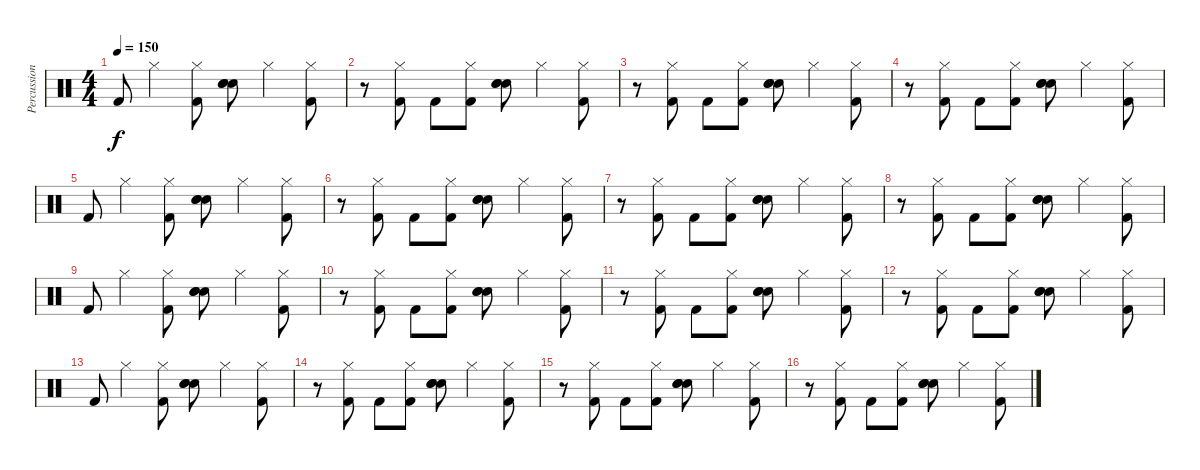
\track ("Percussion" "Percussion") {instrument percussion}
\staff {score}
\articulation defaults
\ts (4 4)
\tempo 150
\clef neutral
\ks c "Kick (hit) 2".8{dy f} "Hi-Hat (closed)".4
("Hi-Hat (closed)" "Kick (hit) 2").8 ("Hand Clap (hit)" "Electric Snare (hit)" "Snare (hit) 2").8 "Hi-Hat (closed)".4 ("Hi-Hat (closed)" "Kick (hit) 2").8 |
r.8 ("Hi-Hat (closed)" "Kick (hit) 2").8 "Kick (hit) 2".8 ("Hi-Hat (closed)" "Kick (hit) 2").8 ("Hand Clap (hit)" "Electric Snare (hit)" "Snare (hit) 2").8 "Hi-Hat (closed)".4 ("Hi-Hat (closed)" "Kick (hit) 2").8 |
r.8 ("Hi-Hat (closed)" "Kick (hit) 2").8 "Kick (hit) 2".8 ("Hi-Hat (closed)" "Kick (hit) 2").8 ("Hand Clap (hit)" "Electric Snare (hit)" "Snare (hit) 2").8 "Hi-Hat (closed)".4 ("Hi-Hat (closed)" "Kick (hit) 2").8 |
r.8 ("Hi-Hat (closed)" "Kick (hit) 2").8 "Kick (hit) 2".8 ("Hi-Hat (closed)" "Kick (hit) 2").8 ("Hand Clap (hit)" "Electric Snare (hit)" "Snare (hit) 2").8 "Hi-Hat (closed)".4 ("Hi-Hat (closed)" "Kick (hit) 2").8 |
"Kick (hit) 2".8 "Hi-Hat (closed)".4 ("Hi-Hat (closed)" "Kick (hit) 2").8 ("Hand Clap (hit)" "Electric Snare (hit)" "Snare (hit) 2").8 "Hi-Hat (closed)".4 ("Hi-Hat (closed)" "Kick (hit) 2").8 |
r.8 ("Hi-Hat (closed)" "Kick (hit) 2").8 "Kick (hit) 2".8 ("Hi-Hat (closed)" "Kick (hit) 2").8 ("Hand Clap (hit)" "Electric Snare (hit)" "Snare (hit) 2").8 "Hi-Hat (closed)".4 ("Hi-Hat (closed)" "Kick (hit) 2").8 |
r.8 ("Hi-Hat (closed)" "Kick (hit) 2").8 "Kick (hit) 2".8 ("Hi-Hat (closed)" "Kick (hit) 2").8 ("Hand Clap (hit)" "Electric Snare (hit)" "Snare (hit) 2").8 "Hi-Hat (closed)".4 ("Hi-Hat (closed)" "Kick (hit) 2").8 |
r.8 ("Hi-Hat (closed)" "Kick (hit) 2").8 "Kick (hit) 2".8 ("Hi-Hat (closed)" "Kick (hit) 2").8 ("Hand Clap (hit)" "Electric Snare (hit)" "Snare (hit) 2").8 "Hi-Hat (closed)".4 ("Hi-Hat (closed)" "Kick (hit) 2").8 |
"Kick (hit) 2".8 "Hi-Hat (closed)".4 ("Hi-Hat (closed)" "Kick (hit) 2").8 ("Hand Clap (hit)" "Electric Snare (hit)" "Snare (hit) 2").8 "Hi-Hat (closed)".4 ("Hi-Hat (closed)" "Kick (hit) 2").8 |
r.8 ("Hi-Hat (closed)" "Kick (hit) 2").8 "Kick (hit) 2".8 ("Hi-Hat (closed)" "Kick (hit) 2").8 ("Hand Clap (hit)" "Electric Snare (hit)" "Snare (hit) 2").8 "Hi-Hat (closed)".4 ("Hi-Hat (closed)" "Kick (hit) 2").8 |
r.8 ("Hi-Hat (closed)" "Kick (hit) 2").8 "Kick (hit) 2".8 ("Hi-Hat (closed)" "Kick (hit) 2").8 ("Hand Clap (hit)" "Electric Snare (hit)" "Snare (hit) 2").8 "Hi-Hat (closed)".4 ("Hi-Hat (closed)" "Kick (hit) 2").8 |
r.8 ("Hi-Hat (closed)" "Kick (hit) 2").8 "Kick (hit) 2".8 ("Hi-Hat (closed)" "Kick (hit) 2").8 ("Hand Clap (hit)" "Electric Snare (hit)" "Snare (hit) 2").8 "Hi-Hat (closed)".4 ("Hi-Hat (closed)" "Kick (hit) 2").8 |
"Kick (hit) 2".8 "Hi-Hat (closed)".4 ("Hi-Hat (closed)" "Kick (hit) 2").8 ("Hand Clap (hit)" "Electric Snare (hit)" "Snare (hit) 2").8 "Hi-Hat (closed)".4 ("Hi-Hat (closed)" "Kick (hit) 2").8 |
r.8 ("Hi-Hat (closed)" "Kick (hit) 2").8 "Kick (hit) 2".8 ("Hi-Hat (closed)" "Kick (hit) 2").8 ("Hand Clap (hit)" "Electric Snare (hit)" "Snare (hit) 2").8 "Hi-Hat (closed)".4 ("Hi-Hat (closed)" "Kick (hit) 2").8 |
r.8 ("Hi-Hat (closed)" "Kick (hit) 2").8 "Kick (hit) 2".8 ("Hi-Hat (closed)" "Kick (hit) 2").8 ("Hand Clap (hit)" "Electric Snare (hit)" "Snare (hit) 2").8 "Hi-Hat (closed)".4 ("Hi-Hat (closed)" "Kick (hit) 2").8 |
r.8 ("Hi-Hat (closed)" "Kick (hit) 2").8 "Kick (hit) 2".8 ("Hi-Hat (closed)" "Kick (hit) 2").8 ("Hand Clap (hit)" "Electric Snare (hit)" "Snare (hit) 2").8 "Hi-Hat (closed)".4 ("Hi-Hat (closed)" "Kick (hit) 2").8
